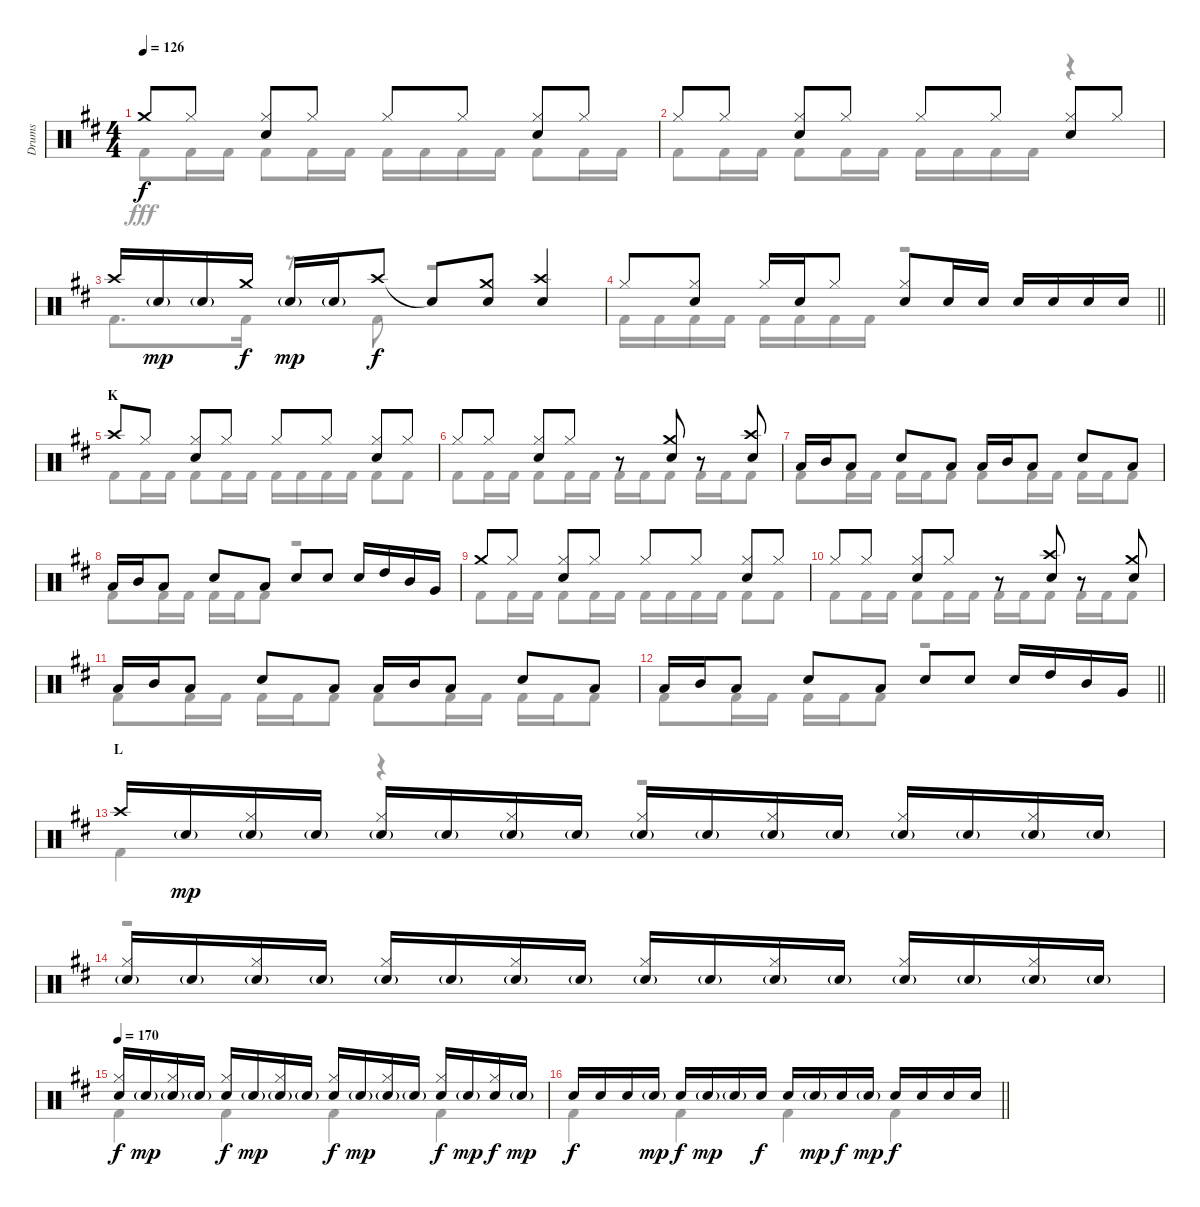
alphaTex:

\track ("Drums" "Drums") {instrument percussion}
\staff {score}
\articulation defaults
\voice
\ts (4 4)
\tempo 126
\clef neutral
\ks d "Crash medium (hit)".8{dy f} "Hi-Hat (closed)".8
("Hi-Hat (closed)" "Snare (hit) 2").8 "Hi-Hat (closed)".8 "Hi-Hat (closed)".8 "Hi-Hat (closed)".8 ("Hi-Hat (closed)" "Snare (hit) 2").8 "Hi-Hat (closed)".8 |
"Hi-Hat (closed)".8 "Hi-Hat (closed)".8 ("Hi-Hat (closed)" "Snare (hit) 2").8 "Hi-Hat (closed)".8 "Hi-Hat (closed)".8 "Hi-Hat (closed)".8 ("Hi-Hat (closed)" "Snare (hit) 2").8 "Hi-Hat (closed)".8 |
"Crash high (hit)".16 "Snare (hit) 2"{g}.16{dy mp} "Snare (hit) 2"{g}.16 "Crash medium (hit)".16{dy f} "Snare (hit) 2"{g}.16{dy mp} "Snare (hit) 2"{g}.16 "Crash high (hit)".8{dy f} "Snare (hit)"{t}.8 ("Crash medium (hit)" "Snare (hit) 2").8 ("Crash high (hit)" "Snare (hit) 2").4 |
\barLineRight lightlight "Hi-Hat (closed)".8
("Hi-Hat (closed)" "Snare (hit) 2").8 "Hi-Hat (closed)".16 "Snare (hit) 2".16 "Hi-Hat (closed)".8 ("Hi-Hat (closed)" "Snare (hit) 2").8 "Snare (hit) 2".16 "Snare (hit) 2".16 "Snare (hit) 2".16 "Snare (hit) 2".16 "Snare (hit) 2".16 "Snare (hit) 2".16 |
\section ("" "K")
"Crash high (hit)".8 "Hi-Hat (closed)".8 ("Hi-Hat (closed)" "Snare (hit) 2").8 "Hi-Hat (closed)".8 "Hi-Hat (closed)".8 "Hi-Hat (closed)".8 ("Hi-Hat (closed)" "Snare (hit) 2").8 "Hi-Hat (closed)".8 |
"Hi-Hat (closed)".8 "Hi-Hat (closed)".8 ("Hi-Hat (closed)" "Snare (hit) 2").8 "Hi-Hat (closed)".8 r.8 ("Crash medium (hit)" "Snare (hit) 2").8 r.8 ("Crash high (hit)" "Snare (hit) 2").8 |
"Low Tom (hit)".16 "Mid Tom (hit)".16 "Low Tom (hit)".8 "Snare (hit) 2".8 "Low Tom (hit)".8 "Low Tom (hit)".16 "Mid Tom (hit)".16 "Low Tom (hit)".8 "Snare (hit) 2".8 "Low Tom (hit)".8 |
"Low Tom (hit)".16 "Mid Tom (hit)".16 "Low Tom (hit)".8 "Snare (hit) 2".8 "Low Tom (hit)".8 "Snare (hit) 2".8 "Snare (hit) 2".8 "Snare (hit) 2".16 "High Tom (hit)".16 "Mid Tom (hit)".16 "Very Low Tom (hit)".16 |
"Crash medium (hit)".8 "Hi-Hat (closed)".8 ("Hi-Hat (closed)" "Snare (hit) 2").8 "Hi-Hat (closed)".8 "Hi-Hat (closed)".8 "Hi-Hat (closed)".8 ("Hi-Hat (closed)" "Snare (hit) 2").8 "Hi-Hat (closed)".8 |
"Hi-Hat (closed)".8 "Hi-Hat (closed)".8 ("Hi-Hat (closed)" "Snare (hit) 2").8 "Hi-Hat (closed)".8 r.8 ("Crash high (hit)" "Snare (hit) 2").8 r.8 ("Crash medium (hit)" "Snare (hit) 2").8 |
"Low Tom (hit)".16 "Mid Tom (hit)".16 "Low Tom (hit)".8 "Snare (hit) 2".8 "Low Tom (hit)".8 "Low Tom (hit)".16 "Mid Tom (hit)".16 "Low Tom (hit)".8 "Snare (hit) 2".8 "Low Tom (hit)".8 |
\barLineRight lightlight "Low Tom (hit)".16 "Mid Tom (hit)".16 "Low Tom (hit)".8 "Snare (hit) 2".8 "Low Tom (hit)".8 "Snare (hit) 2".8 "Snare (hit) 2".8 "Snare (hit) 2".16 "High Tom (hit)".16 "Mid Tom (hit)".16 "Very Low Tom (hit)".16
|
\section ("" "L")
"Crash high (hit)".16 "Snare (hit) 2"{g}.16{dy mp} ("Hi-Hat (closed)" "Snare (hit) 2"{g}).16 "Snare (hit) 2"{g}.16 ("Hi-Hat (closed)" "Snare (hit) 2"{g}).16 "Snare (hit) 2"{g}.16 ("Hi-Hat (closed)" "Snare (hit) 2"{g}).16 "Snare (hit) 2"{g}.16 ("Hi-Hat (closed)" "Snare (hit) 2"{g}).16 "Snare (hit) 2"{g}.16 ("Hi-Hat (closed)" "Snare (hit) 2"{g}).16 "Snare (hit) 2"{g}.16 ("Hi-Hat (closed)" "Snare (hit) 2"{g}).16 "Snare (hit) 2"{g}.16 ("Hi-Hat (closed)" "Snare (hit) 2"{g}).16 "Snare (hit) 2"{g}.16 |
("Hi-Hat (closed)" "Snare (hit) 2"{g}).16 "Snare (hit) 2"{g}.16 ("Hi-Hat (closed)" "Snare (hit) 2"{g}).16 "Snare (hit) 2"{g}.16 ("Hi-Hat (closed)" "Snare (hit) 2"{g}).16 "Snare (hit) 2"{g}.16 ("Hi-Hat (closed)" "Snare (hit) 2"{g}).16 "Snare (hit) 2"{g}.16 ("Hi-Hat (closed)" "Snare (hit) 2"{g}).16 "Snare (hit) 2"{g}.16 ("Hi-Hat (closed)" "Snare (hit) 2"{g}).16 "Snare (hit) 2"{g}.16 ("Hi-Hat (closed)" "Snare (hit) 2"{g}).16 "Snare (hit) 2"{g}.16 ("Hi-Hat (closed)" "Snare (hit) 2"{g}).16 "Snare (hit) 2"{g}.16 |
\tempo 170
("Hi-Hat (closed)" "Snare (hit) 2").16{dy f} "Snare (hit) 2"{g}.16{dy mp} ("Hi-Hat (closed)" "Snare (hit) 2"{g}).16 "Snare (hit) 2"{g}.16 ("Hi-Hat (closed)" "Snare (hit) 2").16{dy f} "Snare (hit) 2"{g}.16{dy mp} ("Hi-Hat (closed)" "Snare (hit) 2"{g}).16 "Snare (hit) 2"{g}.16 ("Hi-Hat (closed)" "Snare (hit) 2").16{dy f} "Snare (hit) 2"{g}.16{dy mp} ("Hi-Hat (closed)" "Snare (hit) 2"{g}).16 "Snare (hit) 2"{g}.16 ("Hi-Hat (closed)" "Snare (hit) 2").16{dy f} "Snare (hit) 2"{g}.16{dy mp} ("Hi-Hat (closed)" "Snare (hit) 2").16{dy f} "Snare (hit) 2"{g}.16{dy mp} |
\barLineRight lightlight "Snare (hit) 2".16{dy f} "Snare (hit) 2".16 "Snare (hit) 2".16 "Snare (hit) 2"{g}.16{dy mp} "Snare (hit) 2".16{dy f} "Snare (hit) 2"{g}.16{dy mp} "Snare (hit) 2"{g}.16 "Snare (hit) 2".16{dy f} "Snare (hit) 2".16 "Snare (hit) 2"{g}.16{dy mp} "Snare (hit) 2".16{dy f} "Snare (hit) 2"{g}.16{dy mp} "Snare (hit) 2".16{dy f} "Snare (hit) 2".16 "Snare (hit) 2".16 "Snare (hit) 2".16
\voice
\clef neutral
\ottava regular
\simile none
\ks d "Kick (hit) 2".8{dy fff} "Kick (hit) 2".16 "Kick (hit) 2".16 "Kick (hit) 2".8 "Kick (hit) 2".16 "Kick (hit) 2".16 "Kick (hit) 2".16 "Kick (hit) 2".16 "Kick (hit) 2".16 "Kick (hit) 2".16 "Kick (hit) 2".8 "Kick (hit) 2".16 "Kick (hit) 2".16
|
"Kick (hit) 2".8 "Kick (hit) 2".16 "Kick (hit) 2".16 "Kick (hit) 2".8 "Kick (hit) 2".16 "Kick (hit) 2".16 "Kick (hit) 2".16 "Kick (hit) 2".16 "Kick (hit) 2".16 "Kick (hit) 2".16 r.4 |
"Kick (hit) 2".8{d} "Kick (hit) 2".16 r.8 "Kick (hit) 2".8 r.2 |
\barLineRight lightlight "Kick (hit) 2".16 "Kick (hit) 2".16 "Kick (hit) 2".16 "Kick (hit) 2".16 "Kick (hit) 2".16 "Kick (hit) 2".16 "Kick (hit) 2".16 "Kick (hit) 2".16
r.2 |
"Kick (hit) 2".8 "Kick (hit) 2".16 "Kick (hit) 2".16 "Kick (hit) 2".8 "Kick (hit) 2".16 "Kick (hit) 2".16 "Kick (hit) 2".16 "Kick (hit) 2".16 "Kick (hit) 2".16 "Kick (hit) 2".16 "Kick (hit) 2".8 "Kick (hit) 2".8 |
"Kick (hit) 2".8 "Kick (hit) 2".16 "Kick (hit) 2".16 "Kick (hit) 2".8 "Kick (hit) 2".16 "Kick (hit) 2".16 "Kick (hit) 2".16 "Kick (hit) 2".16 "Kick (hit) 2".8 "Kick (hit) 2".16 "Kick (hit) 2".16 "Kick (hit) 2".8 |
"Kick (hit) 2".8 "Kick (hit) 2".16 "Kick (hit) 2".16 "Kick (hit) 2".16 "Kick (hit) 2".16 "Kick (hit) 2".8 "Kick (hit) 2".8 "Kick (hit) 2".16 "Kick (hit) 2".16 "Kick (hit) 2".16 "Kick (hit) 2".16 "Kick (hit) 2".8 |
"Kick (hit) 2".8 "Kick (hit) 2".16 "Kick (hit) 2".16 "Kick (hit) 2".16 "Kick (hit) 2".16 "Kick (hit) 2".8 r.2 |
"Kick (hit) 2".8 "Kick (hit) 2".16 "Kick (hit) 2".16 "Kick (hit) 2".8 "Kick (hit) 2".16 "Kick (hit) 2".16 "Kick (hit) 2".16 "Kick (hit) 2".16 "Kick (hit) 2".16 "Kick (hit) 2".16 "Kick (hit) 2".8 "Kick (hit) 2".8 |
"Kick (hit) 2".8 "Kick (hit) 2".16 "Kick (hit) 2".16 "Kick (hit) 2".8 "Kick (hit) 2".16 "Kick (hit) 2".16 "Kick (hit) 2".16 "Kick (hit) 2".16 "Kick (hit) 2".8 "Kick (hit) 2".16 "Kick (hit) 2".16 "Kick (hit) 2".8 |
"Kick (hit) 2".8 "Kick (hit) 2".16 "Kick (hit) 2".16 "Kick (hit) 2".16 "Kick (hit) 2".16 "Kick (hit) 2".8 "Kick (hit) 2".8 "Kick (hit) 2".16 "Kick (hit) 2".16 "Kick (hit) 2".16 "Kick (hit) 2".16 "Kick (hit) 2".8 |
\barLineRight lightlight "Kick (hit) 2".8 "Kick (hit) 2".16 "Kick (hit) 2".16 "Kick (hit) 2".16 "Kick (hit) 2".16 "Kick (hit) 2".8
r.2 |
"Kick (hit) 2".4 r.4 r.2 |
r.1 |
"Kick (hit) 2".4 "Kick (hit) 2".4 "Kick (hit) 2".4 "Kick (hit) 2".4 |
\barLineRight lightlight "Kick (hit) 2".4 "Kick (hit) 2".4 "Kick (hit) 2".4 "Kick (hit) 2".4
